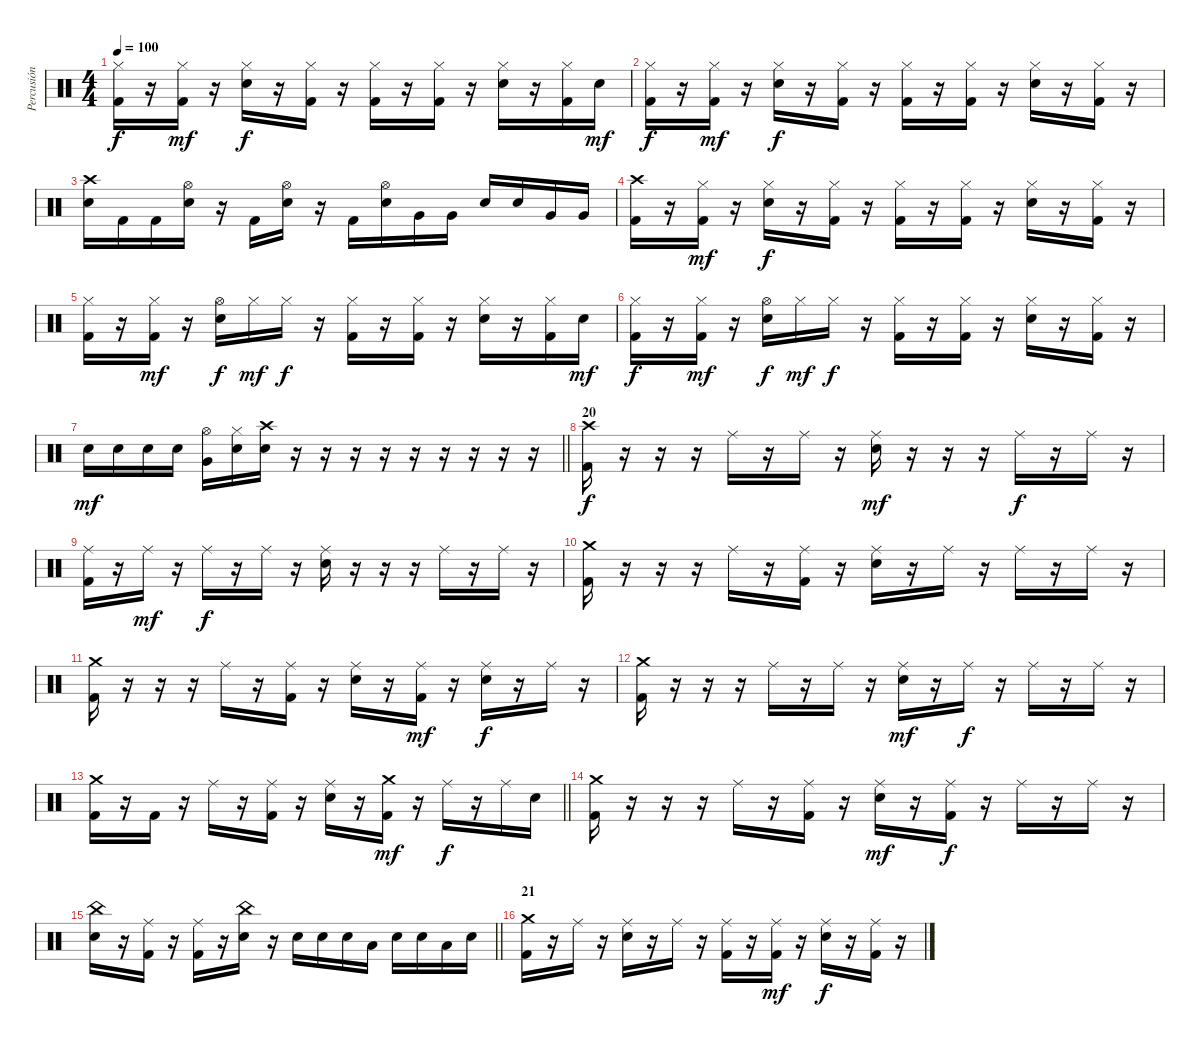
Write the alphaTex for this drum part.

\track ("Percusión" "Percusión") {instrument percussion}
\staff {score}
\articulation defaults
\ts (4 4)
\tempo 100
\clef neutral
\ks c
("Hi-Hat (closed)" "Kick (hit) 2").16{dy f} r.16 ("Hi-Hat (closed)" "Kick (hit) 2").16{dy mf} r.16 ("Hi-Hat (closed)" "Electric Snare (hit)").16{dy f} r.16 ("Hi-Hat (closed)" "Kick (hit) 2").16 r.16 ("Hi-Hat (closed)" "Kick (hit) 2").16 r.16 ("Hi-Hat (closed)" "Kick (hit) 2").16 r.16 ("Hi-Hat (closed)" "Electric Snare (hit)").16 r.16 ("Hi-Hat (closed)" "Kick (hit) 2").16 "Electric Snare (hit)".16{dy mf} |
("Hi-Hat (closed)" "Kick (hit) 2").16{dy f} r.16 ("Hi-Hat (closed)" "Kick (hit) 2").16{dy mf} r.16 ("Hi-Hat (closed)" "Electric Snare (hit)").16{dy f} r.16 ("Hi-Hat (closed)" "Kick (hit) 2").16 r.16 ("Hi-Hat (closed)" "Kick (hit) 2").16 r.16 ("Hi-Hat (closed)" "Kick (hit) 2").16 r.16 ("Hi-Hat (closed)" "Electric Snare (hit)").16 r.16 ("Hi-Hat (closed)" "Kick (hit) 2").16 r.16 |
("Crash high (hit)" "Electric Snare (hit)").16 "Kick (hit) 2".16 "Kick (hit) 2".16 ("Hi-Hat (open)" "Electric Snare (hit)").16 r.16 "Kick (hit) 2".16 ("Hi-Hat (open)" "Electric Snare (hit)").16 r.16 "Kick (hit) 2".16 ("Hi-Hat (open)" "Electric Snare (hit)").16 "Very Low Tom (hit)".16 "Very Low Tom (hit)".16 "Electric Snare (hit)".16 "Electric Snare (hit)".16 "Very Low Tom (hit)".16 "Very Low Tom (hit)".16 |
("Crash high (hit)" "Kick (hit) 2").16 r.16 ("Hi-Hat (closed)" "Kick (hit) 2").16{dy mf} r.16 ("Hi-Hat (closed)" "Electric Snare (hit)").16{dy f} r.16 ("Hi-Hat (closed)" "Kick (hit) 2").16 r.16 ("Hi-Hat (closed)" "Kick (hit) 2").16 r.16 ("Hi-Hat (closed)" "Kick (hit) 2").16 r.16 ("Hi-Hat (closed)" "Electric Snare (hit)").16 r.16 ("Hi-Hat (closed)" "Kick (hit) 2").16 r.16 |
("Hi-Hat (closed)" "Kick (hit) 2").16 r.16 ("Hi-Hat (closed)" "Kick (hit) 2").16{dy mf} r.16 ("Hi-Hat (open)" "Electric Snare (hit)").16{dy f} "Hi-Hat (closed)".16{dy mf} "Hi-Hat (closed)".16{dy f} r.16 ("Hi-Hat (closed)" "Kick (hit) 2").16 r.16 ("Hi-Hat (closed)" "Kick (hit) 2").16 r.16 ("Hi-Hat (closed)" "Electric Snare (hit)").16 r.16 ("Hi-Hat (closed)" "Kick (hit) 2").16 "Electric Snare (hit)".16{dy mf} |
("Hi-Hat (closed)" "Kick (hit) 2").16{dy f} r.16 ("Hi-Hat (closed)" "Kick (hit) 2").16{dy mf} r.16 ("Hi-Hat (open)" "Electric Snare (hit)").16{dy f} "Hi-Hat (closed)".16{dy mf} "Hi-Hat (closed)".16{dy f} r.16 ("Hi-Hat (closed)" "Kick (hit) 2").16 r.16 ("Hi-Hat (closed)" "Kick (hit) 2").16 r.16 ("Hi-Hat (closed)" "Electric Snare (hit)").16 r.16 ("Hi-Hat (closed)" "Kick (hit) 2").16 r.16 |
\barLineRight lightlight "Electric Snare (hit)".16{dy mf} "Electric Snare (hit)".16 "Electric Snare (hit)".16 "Electric Snare (hit)".16
("Hi-Hat (open)" "Very Low Tom (hit)").16 ("Hi-Hat (closed)" "Electric Snare (hit)").16 ("Crash high (hit)" "Electric Snare (hit)").16 r.16 r.16 r.16 r.16 r.16 r.16 r.16 r.16 r.16 |
\section ("" "20")
("Crash high (hit)" "Kick (hit) 2").16{dy f} r.16 r.16 r.16 "Ride (middle)".16 r.16 "Ride (middle)".16 r.16 ("Ride (middle)" "Electric Snare (hit)").16{dy mf} r.16 r.16 r.16 "Ride (middle)".16{dy f} r.16 "Ride (middle)".16 r.16 |
("Ride (middle)" "Kick (hit) 2").16 r.16 "Ride (middle)".16{dy mf} r.16 "Ride (middle)".16{dy f} r.16 "Ride (middle)".16 r.16 ("Ride (middle)" "Electric Snare (hit)").16 r.16 r.16 r.16 "Ride (middle)".16 r.16 "Ride (middle)".16 r.16 |
("Crash medium (hit)" "Kick (hit) 2").16 r.16 r.16 r.16 "Ride (middle)".16 r.16 ("Ride (middle)" "Kick (hit) 2").16 r.16 ("Ride (middle)" "Electric Snare (hit)").16 r.16 "Ride (middle)".16 r.16 "Ride (middle)".16 r.16 "Ride (middle)".16 r.16 |
("Crash medium (hit)" "Kick (hit) 2").16 r.16 r.16 r.16 "Ride (middle)".16 r.16 ("Ride (middle)" "Kick (hit) 2").16 r.16 ("Ride (middle)" "Electric Snare (hit)").16 r.16 ("Ride (middle)" "Kick (hit) 2").16{dy mf} r.16 ("Ride (middle)" "Electric Snare (hit)").16{dy f} r.16 "Ride (middle)".16 r.16 |
("Crash medium (hit)" "Kick (hit) 2").16 r.16 r.16 r.16 "Ride (middle)".16 r.16 "Ride (middle)".16 r.16 ("Ride (middle)" "Electric Snare (hit)").16{dy mf} r.16 "Ride (middle)".16{dy f} r.16 "Ride (middle)".16 r.16 "Ride (middle)".16 r.16 |
\barLineRight lightlight
("Crash medium (hit)" "Kick (hit) 2").16 r.16 "Kick (hit) 2".16 r.16 "Ride (middle)".16 r.16 ("Ride (middle)" "Kick (hit) 2").16 r.16 ("Ride (middle)" "Electric Snare (hit)").16 r.16 ("Crash medium (hit)" "Kick (hit) 2").16{dy mf} r.16 "Ride (middle)".16{dy f} r.16 "Ride (middle)".16 "Electric Snare (hit)".16 |
\section ("" "")
("Crash medium (hit)" "Kick (hit) 2").16 r.16 r.16 r.16 "Ride (middle)".16 r.16 ("Ride (middle)" "Kick (hit) 2").16 r.16 ("Ride (middle)" "Electric Snare (hit)").16{dy mf} r.16 ("Ride (middle)" "Kick (hit) 2").16{dy f} r.16 "Ride (middle)".16 r.16 "Ride (middle)".16 r.16 |
\barLineRight lightlight
("China (hit)" "Electric Snare (hit)").16 r.16 ("Ride (middle)" "Kick (hit) 2").16 r.16 ("Ride (middle)" "Kick (hit) 2").16 r.16 ("China (hit)" "Electric Snare (hit)").16 r.16 "Electric Snare (hit)".16 "Electric Snare (hit)".16 "Electric Snare (hit)".16 "Low Floor Tom (hit)".16 "Electric Snare (hit)".16 "Electric Snare (hit)".16 "Low Floor Tom (hit)".16 "Electric Snare (hit)".16 |
\section ("" "21")
("Crash medium (hit)" "Kick (hit) 2").16 r.16 "Ride (middle)".16 r.16 ("Ride (middle)" "Electric Snare (hit)").16 r.16 "Ride (middle)".16 r.16 ("Ride (middle)" "Kick (hit) 2").16 r.16 ("Ride (middle)" "Kick (hit) 2").16{dy mf} r.16 ("Ride (middle)" "Electric Snare (hit)").16{dy f} r.16 ("Ride (middle)" "Kick (hit) 2").16 r.16
